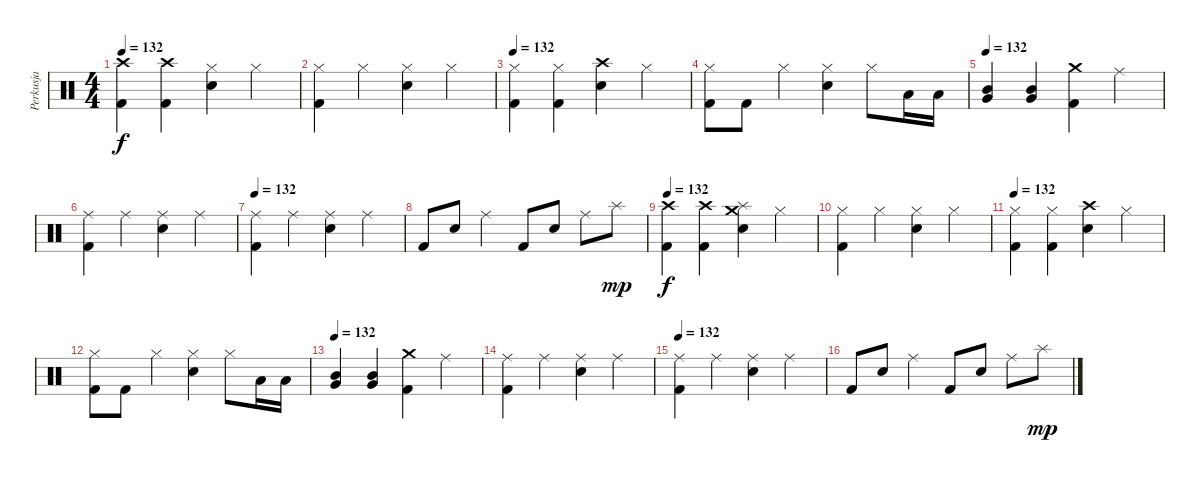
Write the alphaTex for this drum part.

\track ("Perkusja" "Perkusja") {instrument percussion}
\staff {score}
\articulation defaults
\ts (4 4)
\tempo 132
\clef neutral
\ks c
("Crash high (hit)" "Kick (hit) 2").4{dy f} ("Crash high (hit)" "Kick (hit) 2").4 ("Hi-Hat (closed)" "Snare (hit) 2").4 "Hi-Hat (closed)".4 |
("Hi-Hat (closed)" "Kick (hit) 2").4 "Hi-Hat (closed)".4 ("Hi-Hat (closed)" "Snare (hit) 2").4 "Hi-Hat (closed)".4 |
\tempo 132
("Hi-Hat (closed)" "Kick (hit) 2").4 ("Hi-Hat (closed)" "Kick (hit) 2").4 ("Crash high (hit)" "Snare (hit) 2").4 "Hi-Hat (closed)".4 |
("Hi-Hat (closed)" "Kick (hit) 2").8 "Kick (hit) 2".8 "Hi-Hat (closed)".4 ("Hi-Hat (closed)" "Snare (hit) 2").4 "Hi-Hat (closed)".8 "Low Tom (hit)".16 "Low Tom (hit)".16 |
\tempo 132
("Mid Tom (hit)" "Very Low Tom (hit)").4 ("Mid Tom (hit)" "Very Low Tom (hit)").4 ("Crash medium (hit)" "Kick (hit) 2").4 "Ride (middle)".4 |
("Ride (middle)" "Kick (hit) 2").4 "Ride (middle)".4 ("Ride (middle)" "Snare (hit) 2").4 "Ride (middle)".4 |
\tempo 132
("Ride (middle)" "Kick (hit) 2").4 "Ride (middle)".4 ("Ride (middle)" "Snare (hit) 2").4 "Ride (middle)".4 |
"Kick (hit) 2".8 "Snare (hit) 2".8 "Ride (middle)".4 "Kick (hit) 2".8 "Snare (hit) 2".8 "Ride (middle)".8 "Splash (hit)".8{dy mp} |
\tempo 132
("Crash high (hit)" "Kick (hit) 2").4{dy f} ("Crash high (hit)" "Kick (hit) 2").4 ("Crash medium (hit)" "Splash (hit)" "Snare (hit) 2").4 "Hi-Hat (closed)".4 |
("Hi-Hat (closed)" "Kick (hit) 2").4 "Hi-Hat (closed)".4 ("Hi-Hat (closed)" "Snare (hit) 2").4 "Hi-Hat (closed)".4 |
\tempo 132
("Hi-Hat (closed)" "Kick (hit) 2").4 ("Hi-Hat (closed)" "Kick (hit) 2").4 ("Crash high (hit)" "Snare (hit) 2").4 "Hi-Hat (closed)".4 |
("Hi-Hat (closed)" "Kick (hit) 2").8 "Kick (hit) 2".8 "Hi-Hat (closed)".4 ("Hi-Hat (closed)" "Snare (hit) 2").4 "Hi-Hat (closed)".8 "Low Tom (hit)".16 "Low Tom (hit)".16 |
\tempo 132
("Mid Tom (hit)" "Very Low Tom (hit)").4 ("Mid Tom (hit)" "Very Low Tom (hit)").4 ("Crash medium (hit)" "Kick (hit) 2").4 "Ride (middle)".4 |
("Ride (middle)" "Kick (hit) 2").4 "Ride (middle)".4 ("Ride (middle)" "Snare (hit) 2").4 "Ride (middle)".4 |
\tempo 132
("Ride (middle)" "Kick (hit) 2").4 "Ride (middle)".4 ("Ride (middle)" "Snare (hit) 2").4 "Ride (middle)".4 |
"Kick (hit) 2".8 "Snare (hit) 2".8 "Ride (middle)".4 "Kick (hit) 2".8 "Snare (hit) 2".8 "Ride (middle)".8 "Splash (hit)".8{dy mp}
